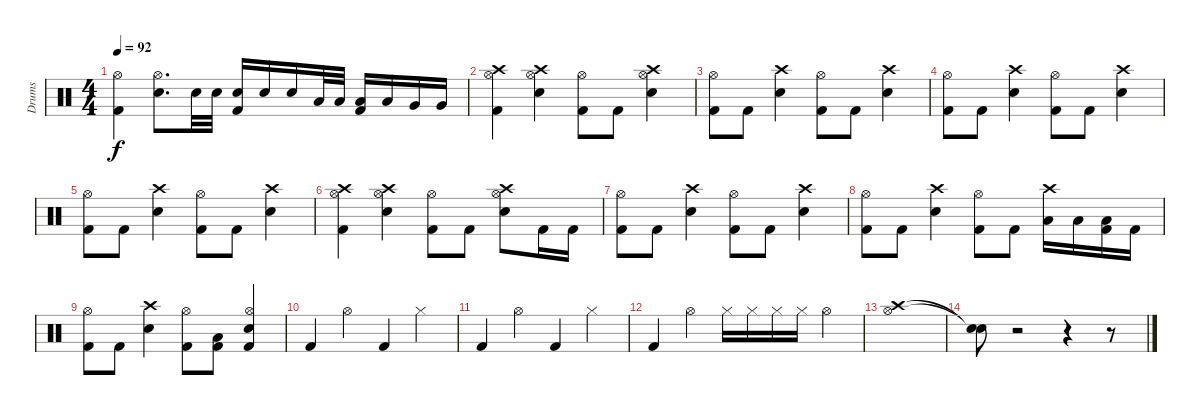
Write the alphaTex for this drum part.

\track ("Drums" "Drums") {instrument percussion}
\staff {score}
\articulation defaults
\ts (4 4)
\tempo 92
\clef neutral
\ks c
("Kick (hit) 2" "Hi-Hat (open)").4{dy f} ("Electric Snare (hit)" "Hi-Hat (open)").8{d} "Electric Snare (hit)".32 "Electric Snare (hit)".32 ("Kick (hit) 2" "Electric Snare (hit)").16 "Electric Snare (hit)".16 "Electric Snare (hit)".16 "Low Tom (hit)".32 "Low Tom (hit)".32 ("Kick (hit) 2" "Low Tom (hit)").16 "Low Tom (hit)".16 "Very Low Tom (hit)".16 "Very Low Tom (hit)".16 |
("Kick (hit) 2" "Hi-Hat (open)" "Crash high (hit)").4 ("Electric Snare (hit)" "Hi-Hat (open)" "Crash high (hit)").4 ("Kick (hit) 2" "Hi-Hat (open)").8 "Kick (hit) 2".8 ("Electric Snare (hit)" "Hi-Hat (open)" "Crash high (hit)").4 |
("Kick (hit) 2" "Hi-Hat (open)").8 "Kick (hit) 2".8 ("Electric Snare (hit)" "Crash high (hit)").4 ("Kick (hit) 2" "Hi-Hat (open)").8 "Kick (hit) 2".8 ("Electric Snare (hit)" "Crash high (hit)").4 |
("Kick (hit) 2" "Hi-Hat (open)").8 "Kick (hit) 2".8 ("Electric Snare (hit)" "Crash high (hit)").4 ("Kick (hit) 2" "Hi-Hat (open)").8 "Kick (hit) 2".8 ("Electric Snare (hit)" "Crash high (hit)").4 |
("Kick (hit) 2" "Hi-Hat (open)").8 "Kick (hit) 2".8 ("Electric Snare (hit)" "Crash high (hit)").4 ("Kick (hit) 2" "Hi-Hat (open)").8 "Kick (hit) 2".8 ("Electric Snare (hit)" "Crash high (hit)").4 |
("Kick (hit) 2" "Hi-Hat (open)" "Crash high (hit)").4 ("Electric Snare (hit)" "Hi-Hat (open)" "Crash high (hit)").4 ("Kick (hit) 2" "Hi-Hat (open)").8 "Kick (hit) 2".8 ("Electric Snare (hit)" "Hi-Hat (open)" "Crash high (hit)").8 "Kick (hit) 2".16 "Kick (hit) 2".16 |
("Kick (hit) 2" "Hi-Hat (open)").8 "Kick (hit) 2".8 ("Electric Snare (hit)" "Crash high (hit)").4 ("Kick (hit) 2" "Hi-Hat (open)").8 "Kick (hit) 2".8 ("Electric Snare (hit)" "Crash high (hit)").4 |
("Kick (hit) 2" "Hi-Hat (open)").8 "Kick (hit) 2".8 ("Electric Snare (hit)" "Crash high (hit)").4 ("Kick (hit) 2" "Hi-Hat (open)").8 "Kick (hit) 2".8 ("Low Tom (hit)" "Crash high (hit)").16 "Low Tom (hit)".16 ("Kick (hit) 2" "Low Tom (hit)").16 "Kick (hit) 2".16 |
("Kick (hit) 2" "Hi-Hat (open)").8 "Kick (hit) 2".8 ("Electric Snare (hit)" "Crash high (hit)").4 ("Kick (hit) 2" "Hi-Hat (open)").8 ("Kick (hit) 2" "Low Tom (hit)").8 ("Kick (hit) 2" "Electric Snare (hit)" "Hi-Hat (open)").4 |
"Kick (hit) 2".4 "Hi-Hat (open)".4 "Kick (hit) 2".4 "Hi-Hat (closed)".4 |
"Kick (hit) 2".4 "Hi-Hat (open)".4 "Kick (hit) 2".4 "Hi-Hat (closed)".4 |
"Kick (hit) 2".4 "Hi-Hat (open)".4 "Hi-Hat (closed)".16 "Hi-Hat (closed)".16 "Hi-Hat (closed)".16 "Hi-Hat (closed)".16 "Hi-Hat (open)".4 |
("Hi-Hat (open)" "Crash high (hit)").1 |
("Snare (hit)"{t} "Snare (hit)"{t}).8 r.2 r.4 r.8
